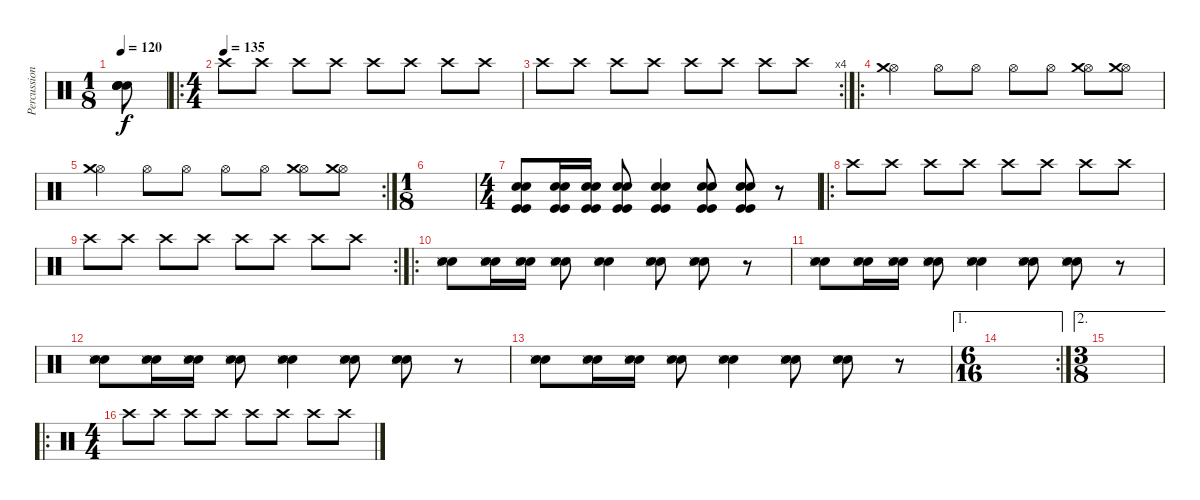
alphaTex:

\track ("Percussion" "Percussion") {instrument percussion}
\staff {score}
\articulation defaults
\ts (1 8)
\tempo 120
\clef neutral
\ks c
("Snare (hit) 2" "Snare (hit) 2" "Snare (hit) 2" "Snare (hit) 2").8{dy f} |
\ro
\ts (4 4)
\tempo (135)
"Crash high (hit)".8 "Crash high (hit)".8 "Crash high (hit)".8 "Crash high (hit)".8 "Crash high (hit)".8 "Crash high (hit)".8 "Crash high (hit)".8 "Crash high (hit)".8 |
\rc 4 "Crash high (hit)".8 "Crash high (hit)".8 "Crash high (hit)".8 "Crash high (hit)".8 "Crash high (hit)".8 "Crash high (hit)".8 "Crash high (hit)".8 "Crash high (hit)".8
|
\ro
("Hi-Hat (open)" "Crash medium (hit)").4 "Hi-Hat (open)".8 "Hi-Hat (open)".8 "Hi-Hat (open)".8 "Hi-Hat (open)".8 ("Hi-Hat (open)" "Crash medium (hit)").8 ("Hi-Hat (open)" "Crash medium (hit)").8 |
\rc 2
("Hi-Hat (open)" "Crash medium (hit)").4 "Hi-Hat (open)".8 "Hi-Hat (open)".8 "Hi-Hat (open)".8 "Hi-Hat (open)".8 ("Hi-Hat (open)" "Crash medium (hit)").8 ("Hi-Hat (open)" "Crash medium (hit)").8 |
\ts (1 8)
|
\ts (4 4)
("Snare (hit) 2" "Hand Clap (hit)" "Kick (hit)" "Kick (hit)").8 ("Snare (hit) 2" "Hand Clap (hit)" "Kick (hit)" "Kick (hit)").16 ("Snare (hit) 2" "Hand Clap (hit)" "Kick (hit)" "Kick (hit)").16 ("Snare (hit) 2" "Hand Clap (hit)" "Kick (hit)" "Kick (hit)").8 ("Snare (hit) 2" "Hand Clap (hit)" "Kick (hit)" "Kick (hit)").4 ("Snare (hit) 2" "Hand Clap (hit)" "Kick (hit)" "Kick (hit)").8 ("Snare (hit) 2" "Hand Clap (hit)" "Kick (hit)" "Kick (hit)").8 r.8 |
\ro "Crash high (hit)".8 "Crash high (hit)".8 "Crash high (hit)".8 "Crash high (hit)".8 "Crash high (hit)".8 "Crash high (hit)".8 "Crash high (hit)".8 "Crash high (hit)".8
|
\rc 2 "Crash high (hit)".8 "Crash high (hit)".8 "Crash high (hit)".8 "Crash high (hit)".8 "Crash high (hit)".8 "Crash high (hit)".8 "Crash high (hit)".8 "Crash high (hit)".8
|
\ro
("Snare (hit) 2" "Electric Snare (hit)" "Snare (side stick) 3").8 ("Snare (hit) 2" "Electric Snare (hit)" "Snare (side stick) 3").16 ("Snare (hit) 2" "Electric Snare (hit)" "Snare (side stick) 3").16 ("Snare (hit) 2" "Electric Snare (hit)" "Snare (side stick) 3").8 ("Snare (hit) 2" "Electric Snare (hit)" "Snare (side stick) 3").4 ("Snare (hit) 2" "Electric Snare (hit)" "Snare (side stick) 3").8 ("Snare (hit) 2" "Electric Snare (hit)" "Snare (side stick) 3").8 r.8 |
("Snare (hit) 2" "Electric Snare (hit)" "Snare (side stick) 3").8 ("Snare (hit) 2" "Electric Snare (hit)" "Snare (side stick) 3").16 ("Snare (hit) 2" "Electric Snare (hit)" "Snare (side stick) 3").16 ("Snare (hit) 2" "Electric Snare (hit)" "Snare (side stick) 3").8 ("Snare (hit) 2" "Electric Snare (hit)" "Snare (side stick) 3").4 ("Snare (hit) 2" "Electric Snare (hit)" "Snare (side stick) 3").8 ("Snare (hit) 2" "Electric Snare (hit)" "Snare (side stick) 3").8 r.8 |
("Snare (hit) 2" "Electric Snare (hit)" "Snare (side stick) 3").8 ("Snare (hit) 2" "Electric Snare (hit)" "Snare (side stick) 3").16 ("Snare (hit) 2" "Electric Snare (hit)" "Snare (side stick) 3").16 ("Snare (hit) 2" "Electric Snare (hit)" "Snare (side stick) 3").8 ("Snare (hit) 2" "Electric Snare (hit)" "Snare (side stick) 3").4 ("Snare (hit) 2" "Electric Snare (hit)" "Snare (side stick) 3").8 ("Snare (hit) 2" "Electric Snare (hit)" "Snare (side stick) 3").8 r.8 |
("Snare (hit) 2" "Electric Snare (hit)" "Snare (side stick) 3").8 ("Snare (hit) 2" "Electric Snare (hit)" "Snare (side stick) 3").16 ("Snare (hit) 2" "Electric Snare (hit)" "Snare (side stick) 3").16 ("Snare (hit) 2" "Electric Snare (hit)" "Snare (side stick) 3").8 ("Snare (hit) 2" "Electric Snare (hit)" "Snare (side stick) 3").4 ("Snare (hit) 2" "Electric Snare (hit)" "Snare (side stick) 3").8 ("Snare (hit) 2" "Electric Snare (hit)" "Snare (side stick) 3").8 r.8 |
\ae 1
\rc 2
\ts (6 16)
|
\ae 2
\ts (3 8)
|
\ro
\ts (4 4)
"Crash high (hit)".8 "Crash high (hit)".8 "Crash high (hit)".8 "Crash high (hit)".8 "Crash high (hit)".8 "Crash high (hit)".8 "Crash high (hit)".8 "Crash high (hit)".8
